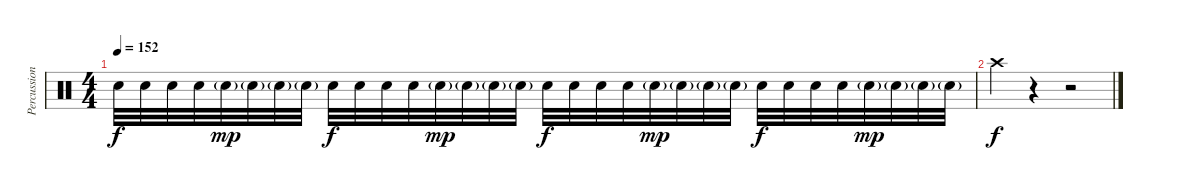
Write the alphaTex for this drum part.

\track ("Percussion" "Percussion") {instrument percussion}
\staff {score}
\articulation defaults
\ts (4 4)
\tempo 152
\clef neutral
\ks c "Snare (hit) 2".32{dy f} "Snare (hit) 2".32 "Snare (hit) 2".32 "Snare (hit) 2".32 "Snare (hit) 2"{g}.32{dy mp} "Snare (hit) 2"{g}.32 "Snare (hit) 2"{g}.32 "Snare (hit) 2"{g}.32 "Snare (hit) 2".32{dy f} "Snare (hit) 2".32 "Snare (hit) 2".32 "Snare (hit) 2".32 "Snare (hit) 2"{g}.32{dy mp} "Snare (hit) 2"{g}.32 "Snare (hit) 2"{g}.32 "Snare (hit) 2"{g}.32 "Snare (hit) 2".32{dy f} "Snare (hit) 2".32 "Snare (hit) 2".32 "Snare (hit) 2".32 "Snare (hit) 2"{g}.32{dy mp} "Snare (hit) 2"{g}.32 "Snare (hit) 2"{g}.32 "Snare (hit) 2"{g}.32 "Snare (hit) 2".32{dy f} "Snare (hit) 2".32 "Snare (hit) 2".32 "Snare (hit) 2".32 "Snare (hit) 2"{g}.32{dy mp} "Snare (hit) 2"{g}.32 "Snare (hit) 2"{g}.32 "Snare (hit) 2"{g}.32
|
"Crash high (hit)".4{dy f} r.4 r.2
